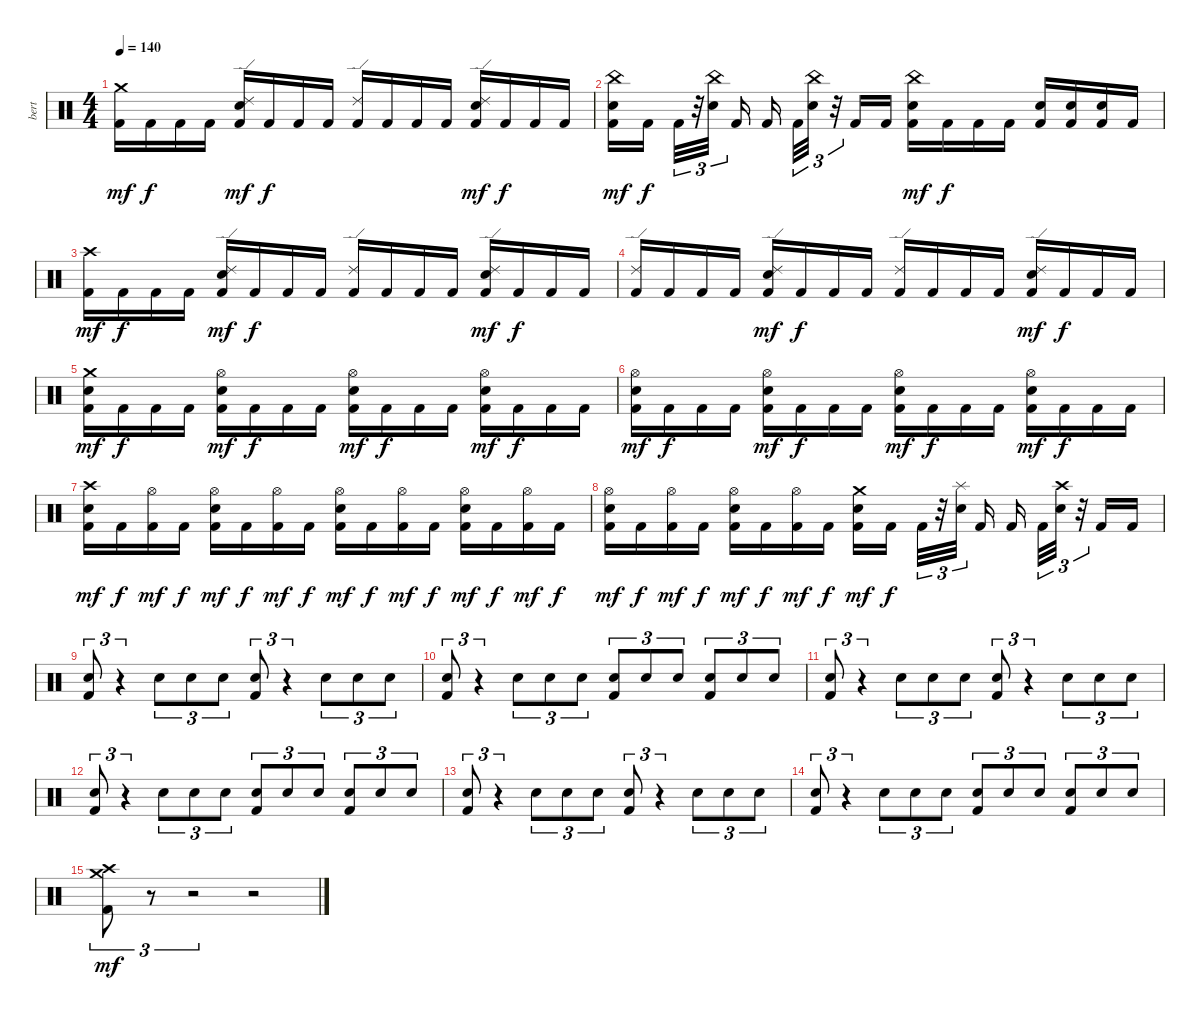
\track ("bert" "bert") {instrument percussion}
\staff {score}
\articulation defaults
\ts (4 4)
\tempo 140
\clef neutral
\ks c
("Crash medium (hit)" "Kick (hit) 2").16{dy mf} "Kick (hit) 2".16{dy f} "Kick (hit) 2".16 "Kick (hit) 2".16 ("Ride (edge) 2" "Snare (hit) 2" "Kick (hit) 2").16{dy mf} "Kick (hit) 2".16{dy f} "Kick (hit) 2".16 "Kick (hit) 2".16 ("Ride (edge) 2" "Kick (hit) 2").16 "Kick (hit) 2".16 "Kick (hit) 2".16 "Kick (hit) 2".16 ("Ride (edge) 2" "Snare (hit) 2" "Kick (hit) 2").16{dy mf} "Kick (hit) 2".16{dy f} "Kick (hit) 2".16 "Kick (hit) 2".16 |
("China (hit)" "Snare (hit) 2" "Kick (hit) 2").16{dy mf} "Kick (hit) 2".16{dy f} "Kick (hit) 2".32{tu (3 2)} r.32{tu (3 2)} ("China (hit)" "Snare (hit) 2").32{tu (3 2)} "Kick (hit) 2".16 "Kick (hit) 2".16 "Kick (hit) 2".32{tu (3 2)} ("China (hit)" "Snare (hit) 2").32{tu (3 2)} r.32{tu (3 2)} "Kick (hit) 2".16 "Kick (hit) 2".16 ("China (hit)" "Snare (hit) 2" "Kick (hit) 2").16{dy mf} "Kick (hit) 2".16{dy f} "Kick (hit) 2".16 "Kick (hit) 2".16 ("Snare (hit) 2" "Kick (hit) 2").16 ("Snare (hit) 2" "Kick (hit) 2").16 ("Snare (hit) 2" "Kick (hit) 2").16 "Kick (hit) 2".16 |
("Crash high (hit)" "Kick (hit) 2").16{dy mf} "Kick (hit) 2".16{dy f} "Kick (hit) 2".16 "Kick (hit) 2".16 ("Ride (edge) 2" "Snare (hit) 2" "Kick (hit) 2").16{dy mf} "Kick (hit) 2".16{dy f} "Kick (hit) 2".16 "Kick (hit) 2".16 ("Ride (edge) 2" "Kick (hit) 2").16 "Kick (hit) 2".16 "Kick (hit) 2".16 "Kick (hit) 2".16 ("Ride (edge) 2" "Snare (hit) 2" "Kick (hit) 2").16{dy mf} "Kick (hit) 2".16{dy f} "Kick (hit) 2".16 "Kick (hit) 2".16 |
("Ride (edge) 2" "Kick (hit) 2").16 "Kick (hit) 2".16 "Kick (hit) 2".16 "Kick (hit) 2".16 ("Ride (edge) 2" "Snare (hit) 2" "Kick (hit) 2").16{dy mf} "Kick (hit) 2".16{dy f} "Kick (hit) 2".16 "Kick (hit) 2".16 ("Ride (edge) 2" "Kick (hit) 2").16 "Kick (hit) 2".16 "Kick (hit) 2".16 "Kick (hit) 2".16 ("Ride (edge) 2" "Snare (hit) 2" "Kick (hit) 2").16{dy mf} "Kick (hit) 2".16{dy f} "Kick (hit) 2".16 "Kick (hit) 2".16 |
("Crash medium (hit)" "Snare (hit) 2" "Kick (hit) 2").16{dy mf} "Kick (hit) 2".16{dy f} "Kick (hit) 2".16 "Kick (hit) 2".16 ("Hi-Hat (open)" "Snare (hit) 2" "Kick (hit) 2").16{dy mf} "Kick (hit) 2".16{dy f} "Kick (hit) 2".16 "Kick (hit) 2".16 ("Hi-Hat (open)" "Snare (hit) 2" "Kick (hit) 2").16{dy mf} "Kick (hit) 2".16{dy f} "Kick (hit) 2".16 "Kick (hit) 2".16 ("Hi-Hat (open)" "Snare (hit) 2" "Kick (hit) 2").16{dy mf} "Kick (hit) 2".16{dy f} "Kick (hit) 2".16 "Kick (hit) 2".16 |
("Hi-Hat (open)" "Snare (hit) 2" "Kick (hit) 2").16{dy mf} "Kick (hit) 2".16{dy f} "Kick (hit) 2".16 "Kick (hit) 2".16 ("Hi-Hat (open)" "Snare (hit) 2" "Kick (hit) 2").16{dy mf} "Kick (hit) 2".16{dy f} "Kick (hit) 2".16 "Kick (hit) 2".16 ("Hi-Hat (open)" "Snare (hit) 2" "Kick (hit) 2").16{dy mf} "Kick (hit) 2".16{dy f} "Kick (hit) 2".16 "Kick (hit) 2".16 ("Hi-Hat (open)" "Snare (hit) 2" "Kick (hit) 2").16{dy mf} "Kick (hit) 2".16{dy f} "Kick (hit) 2".16 "Kick (hit) 2".16 |
("Crash high (hit)" "Snare (hit) 2" "Kick (hit) 2").16{dy mf} "Kick (hit) 2".16{dy f} ("Hi-Hat (open)" "Kick (hit) 2").16{dy mf} "Kick (hit) 2".16{dy f} ("Hi-Hat (open)" "Snare (hit) 2" "Kick (hit) 2").16{dy mf} "Kick (hit) 2".16{dy f} ("Hi-Hat (open)" "Kick (hit) 2").16{dy mf} "Kick (hit) 2".16{dy f} ("Hi-Hat (open)" "Snare (hit) 2" "Kick (hit) 2").16{dy mf} "Kick (hit) 2".16{dy f} ("Hi-Hat (open)" "Kick (hit) 2").16{dy mf} "Kick (hit) 2".16{dy f} ("Hi-Hat (open)" "Snare (hit) 2" "Kick (hit) 2").16{dy mf} "Kick (hit) 2".16{dy f} ("Hi-Hat (open)" "Kick (hit) 2").16{dy mf} "Kick (hit) 2".16{dy f} |
("Hi-Hat (open)" "Snare (hit) 2" "Kick (hit) 2").16{dy mf} "Kick (hit) 2".16{dy f} ("Hi-Hat (open)" "Kick (hit) 2").16{dy mf} "Kick (hit) 2".16{dy f} ("Hi-Hat (open)" "Snare (hit) 2" "Kick (hit) 2").16{dy mf} "Kick (hit) 2".16{dy f} ("Hi-Hat (open)" "Kick (hit) 2").16{dy mf} "Kick (hit) 2".16{dy f} ("Crash medium (hit)" "Snare (hit) 2" "Kick (hit) 2").16{dy mf} "Kick (hit) 2".16{dy f} "Kick (hit) 2".32{tu (3 2)} r.32{tu (3 2)} ("Splash (hit)" "Snare (hit) 2").32{tu (3 2)} "Kick (hit) 2".16 "Kick (hit) 2".16 "Kick (hit) 2".32{tu (3 2)} ("Crash high (hit)" "Snare (hit) 2").32{tu (3 2)} r.32{tu (3 2)} "Kick (hit) 2".16 "Kick (hit) 2".16 |
("Electric Snare (hit)" "Kick (hit) 2").8{tu (3 2)} r.4{tu (3 2)} "Electric Snare (hit)".8{tu (3 2)} "Electric Snare (hit)".8{tu (3 2)} "Electric Snare (hit)".8{tu (3 2)} ("Electric Snare (hit)" "Kick (hit) 2").8{tu (3 2)} r.4{tu (3 2)} "Electric Snare (hit)".8{tu (3 2)} "Electric Snare (hit)".8{tu (3 2)} "Electric Snare (hit)".8{tu (3 2)} |
("Electric Snare (hit)" "Kick (hit) 2").8{tu (3 2)} r.4{tu (3 2)} "Electric Snare (hit)".8{tu (3 2)} "Electric Snare (hit)".8{tu (3 2)} "Electric Snare (hit)".8{tu (3 2)} ("Electric Snare (hit)" "Kick (hit) 2").8{tu (3 2)} "Electric Snare (hit)".8{tu (3 2)} "Electric Snare (hit)".8{tu (3 2)} ("Electric Snare (hit)" "Kick (hit) 2").8{tu (3 2)} "Electric Snare (hit)".8{tu (3 2)} "Electric Snare (hit)".8{tu (3 2)} |
("Electric Snare (hit)" "Kick (hit) 2").8{tu (3 2)} r.4{tu (3 2)} "Electric Snare (hit)".8{tu (3 2)} "Electric Snare (hit)".8{tu (3 2)} "Electric Snare (hit)".8{tu (3 2)} ("Electric Snare (hit)" "Kick (hit) 2").8{tu (3 2)} r.4{tu (3 2)} "Electric Snare (hit)".8{tu (3 2)} "Electric Snare (hit)".8{tu (3 2)} "Electric Snare (hit)".8{tu (3 2)} |
("Electric Snare (hit)" "Kick (hit) 2").8{tu (3 2)} r.4{tu (3 2)} "Electric Snare (hit)".8{tu (3 2)} "Electric Snare (hit)".8{tu (3 2)} "Electric Snare (hit)".8{tu (3 2)} ("Electric Snare (hit)" "Kick (hit) 2").8{tu (3 2)} "Electric Snare (hit)".8{tu (3 2)} "Electric Snare (hit)".8{tu (3 2)} ("Electric Snare (hit)" "Kick (hit) 2").8{tu (3 2)} "Electric Snare (hit)".8{tu (3 2)} "Electric Snare (hit)".8{tu (3 2)} |
("Electric Snare (hit)" "Kick (hit) 2").8{tu (3 2)} r.4{tu (3 2)} "Electric Snare (hit)".8{tu (3 2)} "Electric Snare (hit)".8{tu (3 2)} "Electric Snare (hit)".8{tu (3 2)} ("Electric Snare (hit)" "Kick (hit) 2").8{tu (3 2)} r.4{tu (3 2)} "Electric Snare (hit)".8{tu (3 2)} "Electric Snare (hit)".8{tu (3 2)} "Electric Snare (hit)".8{tu (3 2)} |
("Electric Snare (hit)" "Kick (hit) 2").8{tu (3 2)} r.4{tu (3 2)} "Electric Snare (hit)".8{tu (3 2)} "Electric Snare (hit)".8{tu (3 2)} "Electric Snare (hit)".8{tu (3 2)} ("Electric Snare (hit)" "Kick (hit) 2").8{tu (3 2)} "Electric Snare (hit)".8{tu (3 2)} "Electric Snare (hit)".8{tu (3 2)} ("Electric Snare (hit)" "Kick (hit) 2").8{tu (3 2)} "Electric Snare (hit)".8{tu (3 2)} "Electric Snare (hit)".8{tu (3 2)} |
("Crash high (hit)" "Crash medium (hit)" "Kick (hit) 2").8{tu (3 2) dy mf} r.8{tu (3 2)} r.2{tu (3 2)} r.2
